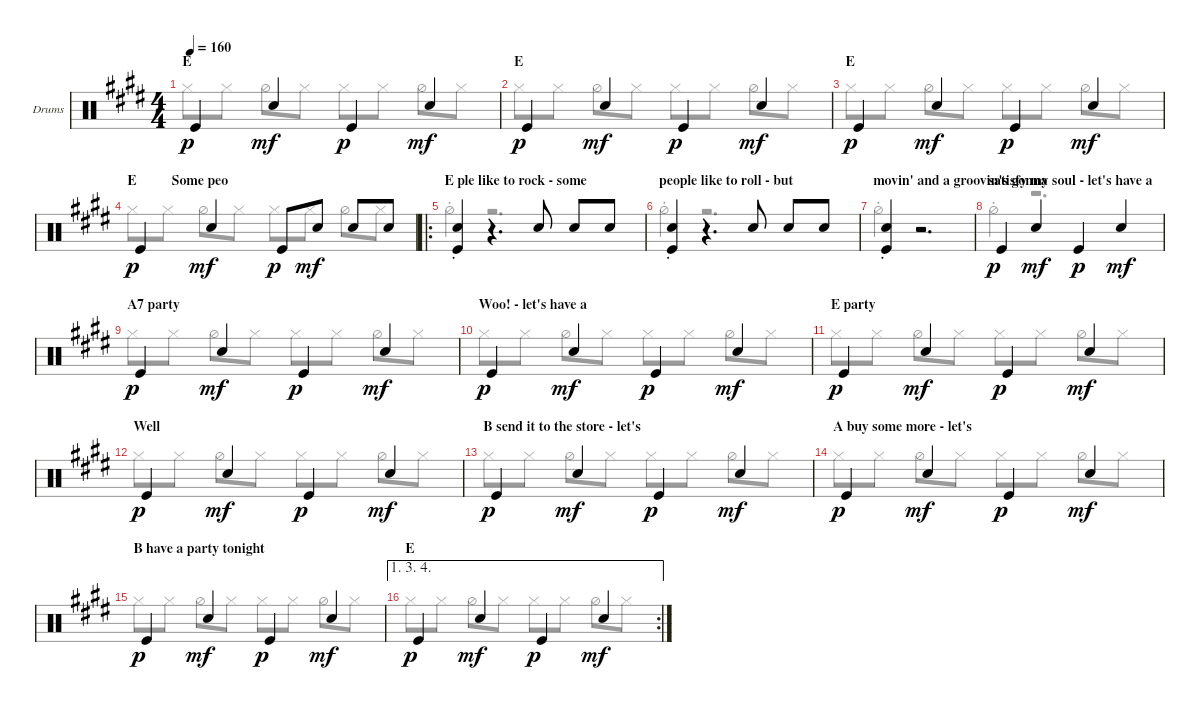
\defaultSystemsLayout 4
\bracketExtendMode groupsimilarinstruments
\firstSystemTrackNameOrientation horizontal
\otherSystemsTrackNameOrientation horizontal
\track ("Drumkit" "Drums") {instrument percussion}
\staff {score}
\articulation defaults
\voice
\ts (4 4)
\section ("" "E")
\tempo 160
\clef neutral
\ks e "Kick (hit)".4{dy p} "Snare (hit) 2".4{dy mf} "Kick (hit)".4{dy p} "Snare (hit) 2".4{dy mf}
|
\section ("" "E")
"Kick (hit)".4{dy p} "Snare (hit) 2".4{dy mf} "Kick (hit)".4{dy p} "Snare (hit) 2".4{dy mf} |
\section ("" "E")
"Kick (hit)".4{dy p} "Snare (hit) 2".4{dy mf} "Kick (hit)".4{dy p} "Snare (hit) 2".4{dy mf} |
\section ("" "E          Some peo")
"Kick (hit)".4{dy p} "Snare (hit) 2".4{dy mf} "Kick (hit)".8{dy p} "Snare (hit) 2".8{dy mf} "Snare (hit) 2".8 "Snare (hit) 2".8 |
\ro
\section ("" "E ple like to rock - some")
("Kick (hit)" "Snare (hit) 2"{st}).4 r.4{d} "Snare (hit) 2".8 "Snare (hit) 2".8 "Snare (hit) 2".8 |
\section ("" "people like to roll - but")
("Kick (hit)" "Snare (hit) 2"{st}).4 r.4{d} "Snare (hit) 2".8 "Snare (hit) 2".8 "Snare (hit) 2".8 |
\section ("" "movin' and a groovin's gonna")
("Kick (hit)" "Snare (hit) 2"{st}).4 r.2{d} |
\section ("" "satisfy my soul - let's have a")
"Kick (hit)".4{dy p} "Snare (hit) 2".4{dy mf} "Kick (hit)".4{dy p} "Snare (hit) 2".4{dy mf} |
\section ("" "A7 party")
"Kick (hit)".4{dy p} "Snare (hit) 2".4{dy mf} "Kick (hit)".4{dy p} "Snare (hit) 2".4{dy mf} |
\section ("" "Woo! - let's have a")
"Kick (hit)".4{dy p} "Snare (hit) 2".4{dy mf} "Kick (hit)".4{dy p} "Snare (hit) 2".4{dy mf} |
\section ("" "E party")
"Kick (hit)".4{dy p} "Snare (hit) 2".4{dy mf} "Kick (hit)".4{dy p} "Snare (hit) 2".4{dy mf} |
\section ("" "Well")
"Kick (hit)".4{dy p} "Snare (hit) 2".4{dy mf} "Kick (hit)".4{dy p} "Snare (hit) 2".4{dy mf} |
\section ("" "B send it to the store - let's")
"Kick (hit)".4{dy p} "Snare (hit) 2".4{dy mf} "Kick (hit)".4{dy p} "Snare (hit) 2".4{dy mf} |
\section ("" "A buy some more - let's")
"Kick (hit)".4{dy p} "Snare (hit) 2".4{dy mf} "Kick (hit)".4{dy p} "Snare (hit) 2".4{dy mf} |
\section ("" "B have a party tonight")
"Kick (hit)".4{dy p} "Snare (hit) 2".4{dy mf} "Kick (hit)".4{dy p} "Snare (hit) 2".4{dy mf} |
\ae (1 3 4)
\rc 2
\section ("" "E")
"Kick (hit)".4{dy p} "Snare (hit) 2".4{dy mf} "Kick (hit)".4{dy p} "Snare (hit) 2".4{dy mf}
\voice
\clef neutral
\ottava regular
\simile none
\ks e "Hi-Hat (closed)".8{dy p} "Hi-Hat (closed)".8 "Hi-Hat (half)".8 "Hi-Hat (closed)".8 "Hi-Hat (closed)".8 "Hi-Hat (closed)".8 "Hi-Hat (half)".8 "Hi-Hat (closed)".8
|
"Hi-Hat (closed)".8 "Hi-Hat (closed)".8 "Hi-Hat (half)".8 "Hi-Hat (closed)".8 "Hi-Hat (closed)".8 "Hi-Hat (closed)".8 "Hi-Hat (half)".8 "Hi-Hat (closed)".8 |
"Hi-Hat (closed)".8 "Hi-Hat (closed)".8 "Hi-Hat (half)".8 "Hi-Hat (closed)".8 "Hi-Hat (closed)".8 "Hi-Hat (closed)".8 "Hi-Hat (half)".8 "Hi-Hat (closed)".8 |
"Hi-Hat (closed)".8 "Hi-Hat (closed)".8 "Hi-Hat (half)".8 "Hi-Hat (closed)".8 "Hi-Hat (closed)".8 "Hi-Hat (closed)".8 "Hi-Hat (half)".8 "Hi-Hat (closed)".8 |
"Hi-Hat (half)"{st}.4 r.2{d} |
"Hi-Hat (half)"{st}.4 r.2{d} |
"Hi-Hat (half)"{st}.4 r.2{d} |
"Hi-Hat (half)"{st}.4 r.2{d} |
"Hi-Hat (closed)".8 "Hi-Hat (closed)".8 "Hi-Hat (half)".8 "Hi-Hat (closed)".8 "Hi-Hat (closed)".8 "Hi-Hat (closed)".8 "Hi-Hat (half)".8 "Hi-Hat (closed)".8 |
"Hi-Hat (closed)".8 "Hi-Hat (closed)".8 "Hi-Hat (half)".8 "Hi-Hat (closed)".8 "Hi-Hat (closed)".8 "Hi-Hat (closed)".8 "Hi-Hat (half)".8 "Hi-Hat (closed)".8 |
"Hi-Hat (closed)".8 "Hi-Hat (closed)".8 "Hi-Hat (half)".8 "Hi-Hat (closed)".8 "Hi-Hat (closed)".8 "Hi-Hat (closed)".8 "Hi-Hat (half)".8 "Hi-Hat (closed)".8 |
"Hi-Hat (closed)".8 "Hi-Hat (closed)".8 "Hi-Hat (half)".8 "Hi-Hat (closed)".8 "Hi-Hat (closed)".8 "Hi-Hat (closed)".8 "Hi-Hat (half)".8 "Hi-Hat (closed)".8 |
"Hi-Hat (closed)".8 "Hi-Hat (closed)".8 "Hi-Hat (half)".8 "Hi-Hat (closed)".8 "Hi-Hat (closed)".8 "Hi-Hat (closed)".8 "Hi-Hat (half)".8 "Hi-Hat (closed)".8 |
"Hi-Hat (closed)".8 "Hi-Hat (closed)".8 "Hi-Hat (half)".8 "Hi-Hat (closed)".8 "Hi-Hat (closed)".8 "Hi-Hat (closed)".8 "Hi-Hat (half)".8 "Hi-Hat (closed)".8 |
"Hi-Hat (closed)".8 "Hi-Hat (closed)".8 "Hi-Hat (half)".8 "Hi-Hat (closed)".8 "Hi-Hat (closed)".8 "Hi-Hat (closed)".8 "Hi-Hat (half)".8 "Hi-Hat (closed)".8 |
"Hi-Hat (closed)".8 "Hi-Hat (closed)".8 "Hi-Hat (half)".8 "Hi-Hat (closed)".8 "Hi-Hat (closed)".8 "Hi-Hat (closed)".8 "Hi-Hat (half)".8 "Hi-Hat (closed)".8
